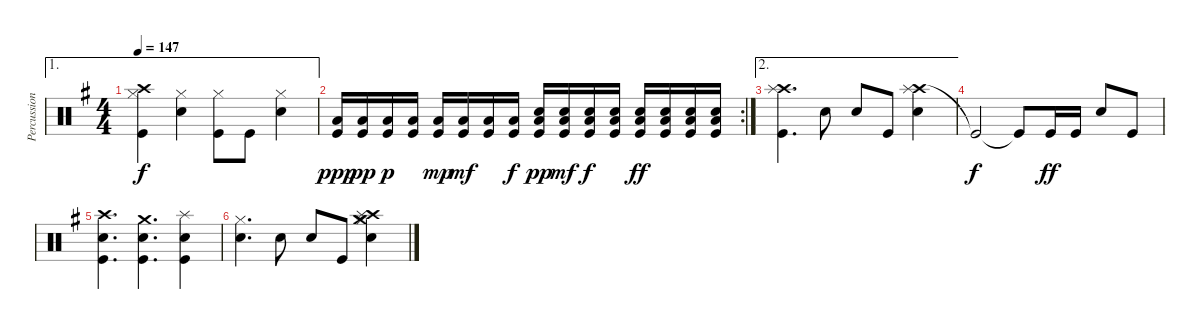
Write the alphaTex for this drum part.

\track ("Percussion" "Percussion") {instrument percussion}
\staff {score}
\articulation defaults
\ae 1
\ts (4 4)
\tempo 147
\clef neutral
\ks g
("Crash high (hit)" "Hi-Hat (closed)" "Kick (hit)").4{dy f} ("Hi-Hat (closed)" "Snare (hit) 2").4 ("Hi-Hat (closed)" "Kick (hit)").8 "Kick (hit)".8 ("Hi-Hat (closed)" "Snare (hit) 2").4 |
\rc 2
("Low Floor Tom (hit)" "Kick (hit)").16{dy ppp} ("Low Floor Tom (hit)" "Kick (hit)").16{dy pp} ("Low Floor Tom (hit)" "Kick (hit)").16{dy p} ("Low Floor Tom (hit)" "Kick (hit)").16 ("Low Floor Tom (hit)" "Kick (hit)").16{dy mp} ("Low Floor Tom (hit)" "Kick (hit)").16{dy mf} ("Low Floor Tom (hit)" "Kick (hit)").16 ("Low Floor Tom (hit)" "Kick (hit)").16{dy f} ("Snare (hit) 2" "Low Floor Tom (hit)" "Kick (hit)").16{dy pp} ("Snare (hit) 2" "Low Floor Tom (hit)" "Kick (hit)").16{dy mf} ("Snare (hit) 2" "Low Floor Tom (hit)" "Kick (hit)").16{dy f} ("Snare (hit) 2" "Low Floor Tom (hit)" "Kick (hit)").16 ("Snare (hit) 2" "Low Floor Tom (hit)" "Kick (hit)").16{dy ff} ("Snare (hit) 2" "Low Floor Tom (hit)" "Kick (hit)").16 ("Snare (hit) 2" "Low Floor Tom (hit)" "Kick (hit)").16 ("Snare (hit) 2" "Low Floor Tom (hit)" "Kick (hit)").16 |
\ae 2
("Crash high (hit)" "Splash (hit)" "Kick (hit)").4{d} "Snare (hit) 2".8 "Snare (hit) 2".8 "Kick (hit)".8 ("Crash high (hit)" "Splash (hit)" "Snare (hit) 2").4 |
"Kick (hit)"{t}.2{dy f} "Kick (hit)"{t}.8 "Kick (hit)".16{dy ff} "Kick (hit)".16 "Snare (hit) 2".8 "Kick (hit)".8 |
("Crash high (hit)" "Snare (hit) 2" "Kick (hit)").4{d} ("Crash medium (hit)" "Snare (hit) 2" "Kick (hit)").4{d} ("Splash (hit)" "Snare (hit) 2" "Kick (hit)").4 |
("Hi-Hat (closed)" "Snare (hit) 2").4{d} "Snare (hit) 2".8 "Snare (hit) 2".8 "Kick (hit)".8 ("Hi-Hat (closed)" "Crash high (hit)" "Crash medium (hit)" "Splash (hit)" "Snare (hit) 2").4
